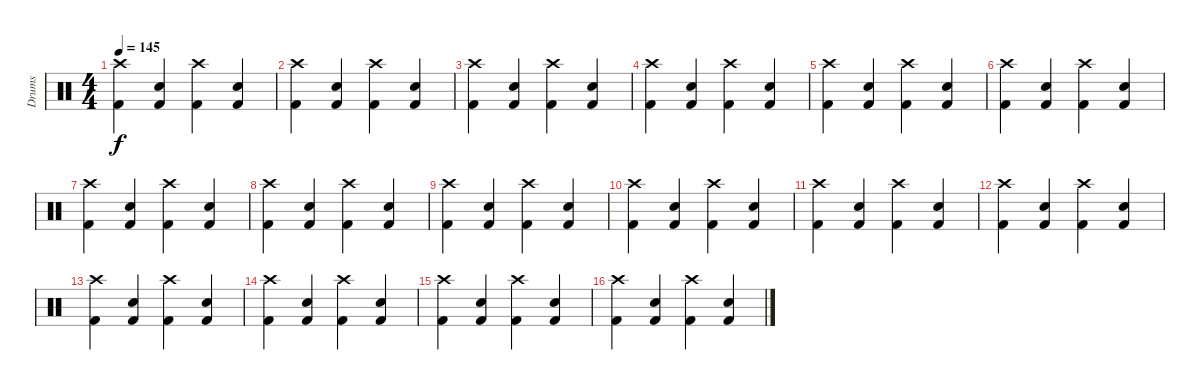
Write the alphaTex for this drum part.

\track ("Drums" "Drums") {instrument percussion}
\staff {score}
\articulation defaults
\ts (4 4)
\tempo 145
\clef neutral
\ks c
("Crash high (hit)" "Kick (hit) 2").4{dy f} ("Snare (hit) 2" "Kick (hit) 2").4 ("Crash high (hit)" "Kick (hit) 2").4 ("Snare (hit) 2" "Kick (hit) 2").4 |
("Crash high (hit)" "Kick (hit) 2").4 ("Snare (hit) 2" "Kick (hit) 2").4 ("Crash high (hit)" "Kick (hit) 2").4 ("Snare (hit) 2" "Kick (hit) 2").4 |
("Crash high (hit)" "Kick (hit) 2").4 ("Snare (hit) 2" "Kick (hit) 2").4 ("Crash high (hit)" "Kick (hit) 2").4 ("Snare (hit) 2" "Kick (hit) 2").4 |
("Crash high (hit)" "Kick (hit) 2").4 ("Snare (hit) 2" "Kick (hit) 2").4 ("Crash high (hit)" "Kick (hit) 2").4 ("Snare (hit) 2" "Kick (hit) 2").4 |
("Crash high (hit)" "Kick (hit) 2").4 ("Snare (hit) 2" "Kick (hit) 2").4 ("Crash high (hit)" "Kick (hit) 2").4 ("Snare (hit) 2" "Kick (hit) 2").4 |
("Crash high (hit)" "Kick (hit) 2").4 ("Snare (hit) 2" "Kick (hit) 2").4 ("Crash high (hit)" "Kick (hit) 2").4 ("Snare (hit) 2" "Kick (hit) 2").4 |
("Crash high (hit)" "Kick (hit) 2").4 ("Snare (hit) 2" "Kick (hit) 2").4 ("Crash high (hit)" "Kick (hit) 2").4 ("Snare (hit) 2" "Kick (hit) 2").4 |
("Crash high (hit)" "Kick (hit) 2").4 ("Snare (hit) 2" "Kick (hit) 2").4 ("Crash high (hit)" "Kick (hit) 2").4 ("Snare (hit) 2" "Kick (hit) 2").4 |
("Crash high (hit)" "Kick (hit) 2").4 ("Snare (hit) 2" "Kick (hit) 2").4 ("Crash high (hit)" "Kick (hit) 2").4 ("Snare (hit) 2" "Kick (hit) 2").4 |
("Crash high (hit)" "Kick (hit) 2").4 ("Snare (hit) 2" "Kick (hit) 2").4 ("Crash high (hit)" "Kick (hit) 2").4 ("Snare (hit) 2" "Kick (hit) 2").4 |
("Crash high (hit)" "Kick (hit) 2").4 ("Snare (hit) 2" "Kick (hit) 2").4 ("Crash high (hit)" "Kick (hit) 2").4 ("Snare (hit) 2" "Kick (hit) 2").4 |
("Crash high (hit)" "Kick (hit) 2").4 ("Snare (hit) 2" "Kick (hit) 2").4 ("Crash high (hit)" "Kick (hit) 2").4 ("Snare (hit) 2" "Kick (hit) 2").4 |
("Crash high (hit)" "Kick (hit) 2").4 ("Snare (hit) 2" "Kick (hit) 2").4 ("Crash high (hit)" "Kick (hit) 2").4 ("Snare (hit) 2" "Kick (hit) 2").4 |
("Crash high (hit)" "Kick (hit) 2").4 ("Snare (hit) 2" "Kick (hit) 2").4 ("Crash high (hit)" "Kick (hit) 2").4 ("Snare (hit) 2" "Kick (hit) 2").4 |
("Crash high (hit)" "Kick (hit) 2").4 ("Snare (hit) 2" "Kick (hit) 2").4 ("Crash high (hit)" "Kick (hit) 2").4 ("Snare (hit) 2" "Kick (hit) 2").4 |
("Crash high (hit)" "Kick (hit) 2").4 ("Snare (hit) 2" "Kick (hit) 2").4 ("Crash high (hit)" "Kick (hit) 2").4 ("Snare (hit) 2" "Kick (hit) 2").4
